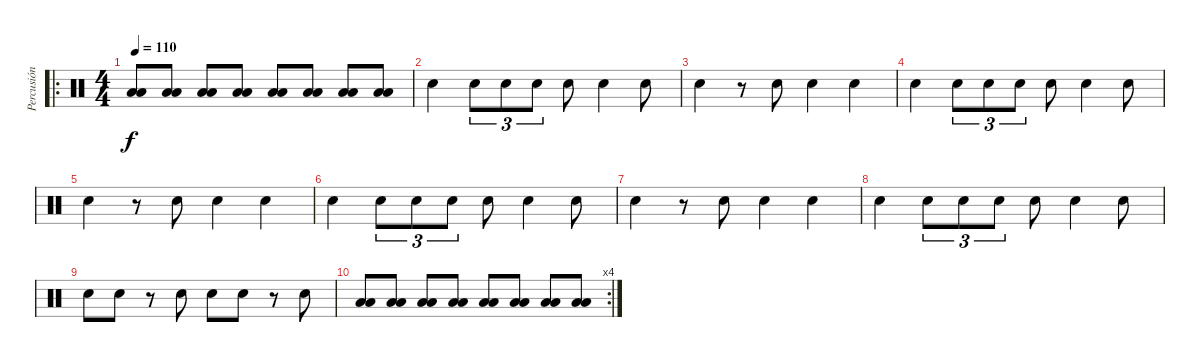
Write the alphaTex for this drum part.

\track ("Percusión" "Percusión") {instrument percussion}
\staff {score}
\articulation defaults
\ro
\ts (4 4)
\tempo 110
\clef neutral
\ks c
("Low Floor Tom (hit)" "Low Tom (hit)").8{dy f} ("Low Floor Tom (hit)" "Low Tom (hit)").8 ("Low Floor Tom (hit)" "Low Tom (hit)").8 ("Low Floor Tom (hit)" "Low Tom (hit)").8 ("Low Floor Tom (hit)" "Low Tom (hit)").8 ("Low Floor Tom (hit)" "Low Tom (hit)").8 ("Low Floor Tom (hit)" "Low Tom (hit)").8 ("Low Floor Tom (hit)" "Low Tom (hit)").8 |
"Snare (hit) 2".4 "Snare (hit) 2".8{tu (3 2)} "Snare (hit) 2".8{tu (3 2)} "Snare (hit) 2".8{tu (3 2)} "Snare (hit) 2".8 "Snare (hit) 2".4 "Snare (hit) 2".8 |
"Snare (hit) 2".4 r.8 "Snare (hit) 2".8 "Snare (hit) 2".4 "Snare (hit) 2".4 |
"Snare (hit) 2".4 "Snare (hit) 2".8{tu (3 2)} "Snare (hit) 2".8{tu (3 2)} "Snare (hit) 2".8{tu (3 2)} "Snare (hit) 2".8 "Snare (hit) 2".4 "Snare (hit) 2".8 |
"Snare (hit) 2".4 r.8 "Snare (hit) 2".8 "Snare (hit) 2".4 "Snare (hit) 2".4 |
"Snare (hit) 2".4 "Snare (hit) 2".8{tu (3 2)} "Snare (hit) 2".8{tu (3 2)} "Snare (hit) 2".8{tu (3 2)} "Snare (hit) 2".8 "Snare (hit) 2".4 "Snare (hit) 2".8 |
"Snare (hit) 2".4 r.8 "Snare (hit) 2".8 "Snare (hit) 2".4 "Snare (hit) 2".4 |
"Snare (hit) 2".4 "Snare (hit) 2".8{tu (3 2)} "Snare (hit) 2".8{tu (3 2)} "Snare (hit) 2".8{tu (3 2)} "Snare (hit) 2".8 "Snare (hit) 2".4 "Snare (hit) 2".8 |
"Snare (hit) 2".8 "Snare (hit) 2".8 r.8 "Snare (hit) 2".8 "Snare (hit) 2".8 "Snare (hit) 2".8 r.8 "Snare (hit) 2".8 |
\rc 4
("Low Floor Tom (hit)" "Low Tom (hit)").8 ("Low Floor Tom (hit)" "Low Tom (hit)").8 ("Low Floor Tom (hit)" "Low Tom (hit)").8 ("Low Floor Tom (hit)" "Low Tom (hit)").8 ("Low Floor Tom (hit)" "Low Tom (hit)").8 ("Low Floor Tom (hit)" "Low Tom (hit)").8 ("Low Floor Tom (hit)" "Low Tom (hit)").8 ("Low Floor Tom (hit)" "Low Tom (hit)").8
